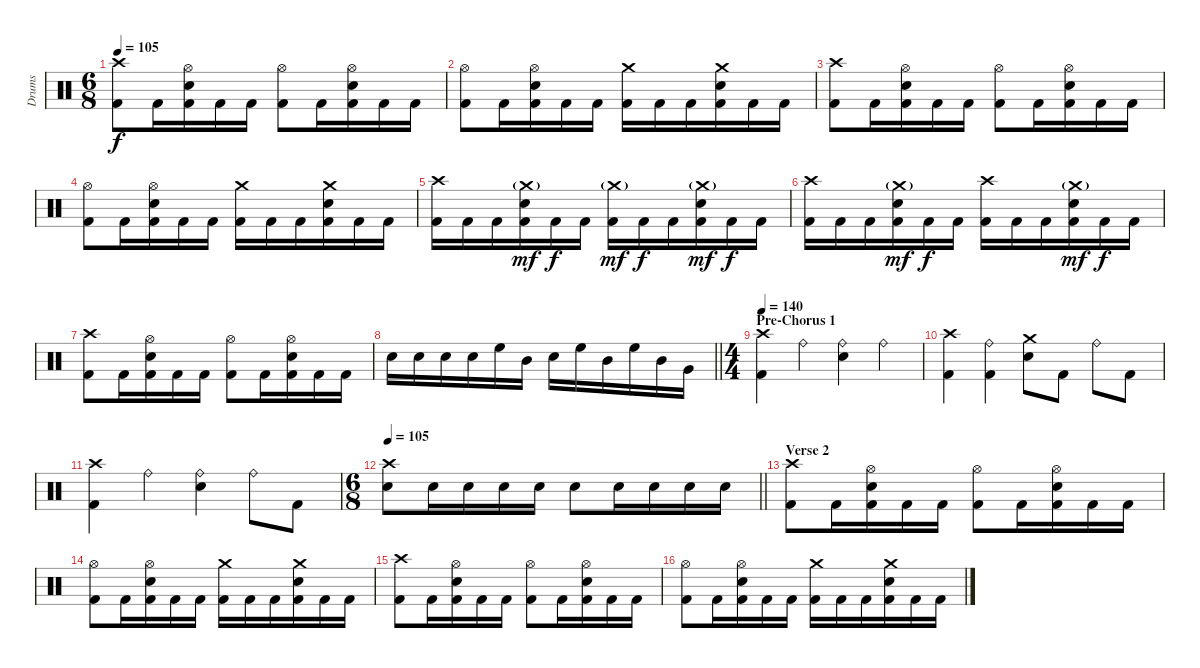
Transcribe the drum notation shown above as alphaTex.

\track ("Drums" "Drums") {instrument percussion}
\staff {score}
\articulation defaults
\ts (6 8)
\tempo 105
\clef neutral
\ks c
("Crash high (hit)" "Kick (hit) 2").8{dy f} "Kick (hit) 2".16 ("Hi-Hat (open)" "Electric Snare (hit)" "Kick (hit) 2").16 "Kick (hit) 2".16 "Kick (hit) 2".16 ("Hi-Hat (open)" "Kick (hit) 2").8 "Kick (hit) 2".16 ("Hi-Hat (open)" "Electric Snare (hit)" "Kick (hit) 2").16 "Kick (hit) 2".16 "Kick (hit) 2".16 |
("Hi-Hat (open)" "Kick (hit) 2").8 "Kick (hit) 2".16 ("Hi-Hat (open)" "Electric Snare (hit)" "Kick (hit) 2").16 "Kick (hit) 2".16 "Kick (hit) 2".16 ("Crash medium (hit)" "Kick (hit) 2").16 "Kick (hit) 2".16 "Kick (hit) 2".16 ("Crash medium (hit)" "Electric Snare (hit)" "Kick (hit) 2").16 "Kick (hit) 2".16 "Kick (hit) 2".16 |
("Crash high (hit)" "Kick (hit) 2").8 "Kick (hit) 2".16 ("Hi-Hat (open)" "Electric Snare (hit)" "Kick (hit) 2").16 "Kick (hit) 2".16 "Kick (hit) 2".16 ("Hi-Hat (open)" "Kick (hit) 2").8 "Kick (hit) 2".16 ("Hi-Hat (open)" "Electric Snare (hit)" "Kick (hit) 2").16 "Kick (hit) 2".16 "Kick (hit) 2".16 |
("Hi-Hat (open)" "Kick (hit) 2").8 "Kick (hit) 2".16 ("Hi-Hat (open)" "Electric Snare (hit)" "Kick (hit) 2").16 "Kick (hit) 2".16 "Kick (hit) 2".16 ("Crash medium (hit)" "Kick (hit) 2").16 "Kick (hit) 2".16 "Kick (hit) 2".16 ("Crash medium (hit)" "Electric Snare (hit)" "Kick (hit) 2").16 "Kick (hit) 2".16 "Kick (hit) 2".16 |
("Crash high (hit)" "Kick (hit) 2").16 "Kick (hit) 2".16 "Kick (hit) 2".16 ("Crash medium (hit)"{g} "Electric Snare (hit)" "Kick (hit) 2").16{dy mf} "Kick (hit) 2".16{dy f} "Kick (hit) 2".16 ("Crash medium (hit)"{g} "Kick (hit) 2").16{dy mf} "Kick (hit) 2".16{dy f} "Kick (hit) 2".16 ("Crash medium (hit)"{g} "Electric Snare (hit)" "Kick (hit) 2").16{dy mf} "Kick (hit) 2".16{dy f} "Kick (hit) 2".16 |
("Crash high (hit)" "Kick (hit) 2").16 "Kick (hit) 2".16 "Kick (hit) 2".16 ("Crash medium (hit)"{g} "Electric Snare (hit)" "Kick (hit) 2").16{dy mf} "Kick (hit) 2".16{dy f} "Kick (hit) 2".16 ("Crash high (hit)" "Kick (hit) 2").16 "Kick (hit) 2".16 "Kick (hit) 2".16 ("Crash medium (hit)"{g} "Electric Snare (hit)" "Kick (hit) 2").16{dy mf} "Kick (hit) 2".16{dy f} "Kick (hit) 2".16 |
("Crash high (hit)" "Kick (hit) 2").8 "Kick (hit) 2".16 ("Hi-Hat (open)" "Electric Snare (hit)" "Kick (hit) 2").16 "Kick (hit) 2".16 "Kick (hit) 2".16 ("Hi-Hat (open)" "Kick (hit) 2").8 "Kick (hit) 2".16 ("Hi-Hat (open)" "Electric Snare (hit)" "Kick (hit) 2").16 "Kick (hit) 2".16 "Kick (hit) 2".16 |
\barLineRight lightlight "Electric Snare (hit)".16 "Electric Snare (hit)".16 "Electric Snare (hit)".16 "Electric Snare (hit)".16 "High Floor Tom (hit)".16 "Mid Tom (hit)".16 "Electric Snare (hit)".16 "High Floor Tom (hit)".16 "Mid Tom (hit)".16 "High Floor Tom (hit)".16 "Mid Tom (hit)".16 "Very Low Tom (hit)".16
|
\ts (4 4)
\section ("" "Pre-Chorus 1")
\tempo 140
("Crash high (hit)" "Kick (hit) 2").4 "Ride (bell)".4 ("Ride (bell)" "Electric Snare (hit)").4 "Ride (bell)".4 |
("Crash high (hit)" "Kick (hit) 2").4 ("Ride (bell)" "Kick (hit) 2").4 ("Crash medium (hit)" "Electric Snare (hit)").8 "Kick (hit) 2".8 "Ride (bell)".8 "Kick (hit) 2".8 |
("Crash high (hit)" "Kick (hit) 2").4 "Ride (bell)".4 ("Ride (bell)" "Electric Snare (hit)").4 "Ride (bell)".8 "Kick (hit) 2".8 |
\ts (6 8)
\tempo 105
\barLineRight lightlight
("Crash high (hit)" "Electric Snare (hit)").8 "Electric Snare (hit)".16 "Electric Snare (hit)".16 "Electric Snare (hit)".16 "Electric Snare (hit)".16 "Electric Snare (hit)".8 "Electric Snare (hit)".16 "Electric Snare (hit)".16 "Electric Snare (hit)".16 "Electric Snare (hit)".16 |
\section ("" "Verse 2")
("Crash high (hit)" "Kick (hit) 2").8 "Kick (hit) 2".16 ("Hi-Hat (open)" "Electric Snare (hit)" "Kick (hit) 2").16 "Kick (hit) 2".16 "Kick (hit) 2".16 ("Hi-Hat (open)" "Kick (hit) 2").8 "Kick (hit) 2".16 ("Hi-Hat (open)" "Electric Snare (hit)" "Kick (hit) 2").16 "Kick (hit) 2".16 "Kick (hit) 2".16 |
("Hi-Hat (open)" "Kick (hit) 2").8 "Kick (hit) 2".16 ("Hi-Hat (open)" "Electric Snare (hit)" "Kick (hit) 2").16 "Kick (hit) 2".16 "Kick (hit) 2".16 ("Crash medium (hit)" "Kick (hit) 2").16 "Kick (hit) 2".16 "Kick (hit) 2".16 ("Crash medium (hit)" "Electric Snare (hit)" "Kick (hit) 2").16 "Kick (hit) 2".16 "Kick (hit) 2".16 |
("Crash high (hit)" "Kick (hit) 2").8 "Kick (hit) 2".16 ("Hi-Hat (open)" "Electric Snare (hit)" "Kick (hit) 2").16 "Kick (hit) 2".16 "Kick (hit) 2".16 ("Hi-Hat (open)" "Kick (hit) 2").8 "Kick (hit) 2".16 ("Hi-Hat (open)" "Electric Snare (hit)" "Kick (hit) 2").16 "Kick (hit) 2".16 "Kick (hit) 2".16 |
("Hi-Hat (open)" "Kick (hit) 2").8 "Kick (hit) 2".16 ("Hi-Hat (open)" "Electric Snare (hit)" "Kick (hit) 2").16 "Kick (hit) 2".16 "Kick (hit) 2".16 ("Crash medium (hit)" "Kick (hit) 2").16 "Kick (hit) 2".16 "Kick (hit) 2".16 ("Crash medium (hit)" "Electric Snare (hit)" "Kick (hit) 2").16 "Kick (hit) 2".16 "Kick (hit) 2".16
